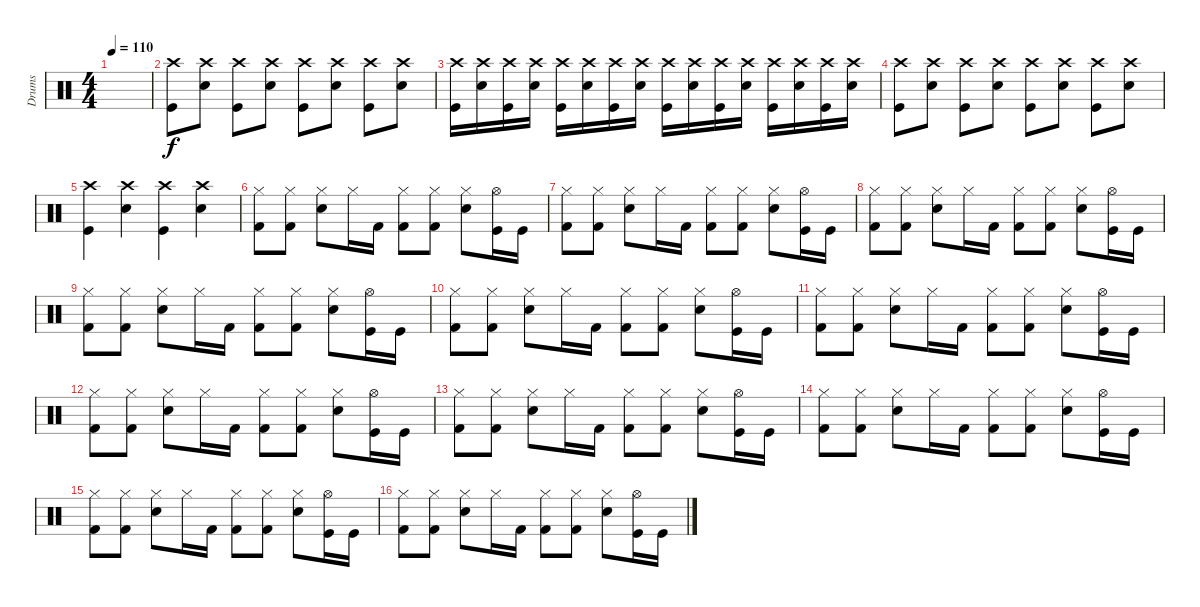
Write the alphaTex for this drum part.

\track ("Drums" "Drums") {instrument percussion}
\staff {score}
\articulation defaults
\ts (4 4)
\tempo 110
\clef neutral
\ks c
|
("Crash high (hit)" "Kick (hit)").8 ("Crash high (hit)" "Metronome (bell)").8 ("Crash high (hit)" "Kick (hit)").8 ("Crash high (hit)" "Metronome (bell)").8 ("Crash high (hit)" "Kick (hit)").8 ("Crash high (hit)" "Metronome (bell)").8 ("Crash high (hit)" "Kick (hit)").8 ("Crash high (hit)" "Metronome (bell)").8 |
("Crash high (hit)" "Kick (hit)").16 ("Crash high (hit)" "Metronome (bell)").16 ("Crash high (hit)" "Kick (hit)").16 ("Crash high (hit)" "Metronome (bell)").16 ("Crash high (hit)" "Kick (hit)").16 ("Crash high (hit)" "Metronome (bell)").16 ("Crash high (hit)" "Kick (hit)").16 ("Crash high (hit)" "Metronome (bell)").16 ("Crash high (hit)" "Kick (hit)").16 ("Crash high (hit)" "Metronome (bell)").16 ("Crash high (hit)" "Kick (hit)").16 ("Crash high (hit)" "Metronome (bell)").16 ("Crash high (hit)" "Kick (hit)").16 ("Crash high (hit)" "Metronome (bell)").16 ("Crash high (hit)" "Kick (hit)").16 ("Crash high (hit)" "Metronome (bell)").16 |
("Crash high (hit)" "Kick (hit)").8 ("Crash high (hit)" "Metronome (bell)").8 ("Crash high (hit)" "Kick (hit)").8 ("Crash high (hit)" "Metronome (bell)").8 ("Crash high (hit)" "Kick (hit)").8 ("Crash high (hit)" "Metronome (bell)").8 ("Crash high (hit)" "Kick (hit)").8 ("Crash high (hit)" "Metronome (bell)").8 |
("Crash high (hit)" "Kick (hit)").4 ("Crash high (hit)" "Metronome (bell)").4 ("Crash high (hit)" "Kick (hit)").4 ("Crash high (hit)" "Metronome (bell)").4 |
("Hi-Hat (closed)" "Kick (hit) 2").8 ("Hi-Hat (closed)" "Kick (hit) 2").8 ("Hi-Hat (closed)" "Snare (hit) 2").8 "Hi-Hat (closed)".16 "Kick (hit) 2".16 ("Hi-Hat (closed)" "Kick (hit) 2").8 ("Hi-Hat (closed)" "Kick (hit) 2").8 ("Hi-Hat (closed)" "Snare (hit) 2").8 ("Hi-Hat (open)" "Kick (hit)").16 "Kick (hit)".16 |
("Hi-Hat (closed)" "Kick (hit) 2").8 ("Hi-Hat (closed)" "Kick (hit) 2").8 ("Hi-Hat (closed)" "Snare (hit) 2").8 "Hi-Hat (closed)".16 "Kick (hit) 2".16 ("Hi-Hat (closed)" "Kick (hit) 2").8 ("Hi-Hat (closed)" "Kick (hit) 2").8 ("Hi-Hat (closed)" "Snare (hit) 2").8 ("Hi-Hat (open)" "Kick (hit)").16 "Kick (hit)".16 |
("Hi-Hat (closed)" "Kick (hit) 2").8 ("Hi-Hat (closed)" "Kick (hit) 2").8 ("Hi-Hat (closed)" "Snare (hit) 2").8 "Hi-Hat (closed)".16 "Kick (hit) 2".16 ("Hi-Hat (closed)" "Kick (hit) 2").8 ("Hi-Hat (closed)" "Kick (hit) 2").8 ("Hi-Hat (closed)" "Snare (hit) 2").8 ("Hi-Hat (open)" "Kick (hit)").16 "Kick (hit)".16 |
("Hi-Hat (closed)" "Kick (hit) 2").8 ("Hi-Hat (closed)" "Kick (hit) 2").8 ("Hi-Hat (closed)" "Snare (hit) 2").8 "Hi-Hat (closed)".16 "Kick (hit) 2".16 ("Hi-Hat (closed)" "Kick (hit) 2").8 ("Hi-Hat (closed)" "Kick (hit) 2").8 ("Hi-Hat (closed)" "Snare (hit) 2").8 ("Hi-Hat (open)" "Kick (hit)").16 "Kick (hit)".16 |
("Hi-Hat (closed)" "Kick (hit) 2").8 ("Hi-Hat (closed)" "Kick (hit) 2").8 ("Hi-Hat (closed)" "Snare (hit) 2").8 "Hi-Hat (closed)".16 "Kick (hit) 2".16 ("Hi-Hat (closed)" "Kick (hit) 2").8 ("Hi-Hat (closed)" "Kick (hit) 2").8 ("Hi-Hat (closed)" "Snare (hit) 2").8 ("Hi-Hat (open)" "Kick (hit)").16 "Kick (hit)".16 |
("Hi-Hat (closed)" "Kick (hit) 2").8 ("Hi-Hat (closed)" "Kick (hit) 2").8 ("Hi-Hat (closed)" "Snare (hit) 2").8 "Hi-Hat (closed)".16 "Kick (hit) 2".16 ("Hi-Hat (closed)" "Kick (hit) 2").8 ("Hi-Hat (closed)" "Kick (hit) 2").8 ("Hi-Hat (closed)" "Snare (hit) 2").8 ("Hi-Hat (open)" "Kick (hit)").16 "Kick (hit)".16 |
("Hi-Hat (closed)" "Kick (hit) 2").8 ("Hi-Hat (closed)" "Kick (hit) 2").8 ("Hi-Hat (closed)" "Snare (hit) 2").8 "Hi-Hat (closed)".16 "Kick (hit) 2".16 ("Hi-Hat (closed)" "Kick (hit) 2").8 ("Hi-Hat (closed)" "Kick (hit) 2").8 ("Hi-Hat (closed)" "Snare (hit) 2").8 ("Hi-Hat (open)" "Kick (hit)").16 "Kick (hit)".16 |
("Hi-Hat (closed)" "Kick (hit) 2").8 ("Hi-Hat (closed)" "Kick (hit) 2").8 ("Hi-Hat (closed)" "Snare (hit) 2").8 "Hi-Hat (closed)".16 "Kick (hit) 2".16 ("Hi-Hat (closed)" "Kick (hit) 2").8 ("Hi-Hat (closed)" "Kick (hit) 2").8 ("Hi-Hat (closed)" "Snare (hit) 2").8 ("Hi-Hat (open)" "Kick (hit)").16 "Kick (hit)".16 |
("Hi-Hat (closed)" "Kick (hit) 2").8 ("Hi-Hat (closed)" "Kick (hit) 2").8 ("Hi-Hat (closed)" "Snare (hit) 2").8 "Hi-Hat (closed)".16 "Kick (hit) 2".16 ("Hi-Hat (closed)" "Kick (hit) 2").8 ("Hi-Hat (closed)" "Kick (hit) 2").8 ("Hi-Hat (closed)" "Snare (hit) 2").8 ("Hi-Hat (open)" "Kick (hit)").16 "Kick (hit)".16 |
("Hi-Hat (closed)" "Kick (hit) 2").8 ("Hi-Hat (closed)" "Kick (hit) 2").8 ("Hi-Hat (closed)" "Snare (hit) 2").8 "Hi-Hat (closed)".16 "Kick (hit) 2".16 ("Hi-Hat (closed)" "Kick (hit) 2").8 ("Hi-Hat (closed)" "Kick (hit) 2").8 ("Hi-Hat (closed)" "Snare (hit) 2").8 ("Hi-Hat (open)" "Kick (hit)").16 "Kick (hit)".16 |
("Hi-Hat (closed)" "Kick (hit) 2").8 ("Hi-Hat (closed)" "Kick (hit) 2").8 ("Hi-Hat (closed)" "Snare (hit) 2").8 "Hi-Hat (closed)".16 "Kick (hit) 2".16 ("Hi-Hat (closed)" "Kick (hit) 2").8 ("Hi-Hat (closed)" "Kick (hit) 2").8 ("Hi-Hat (closed)" "Snare (hit) 2").8 ("Hi-Hat (open)" "Kick (hit)").16 "Kick (hit)".16
